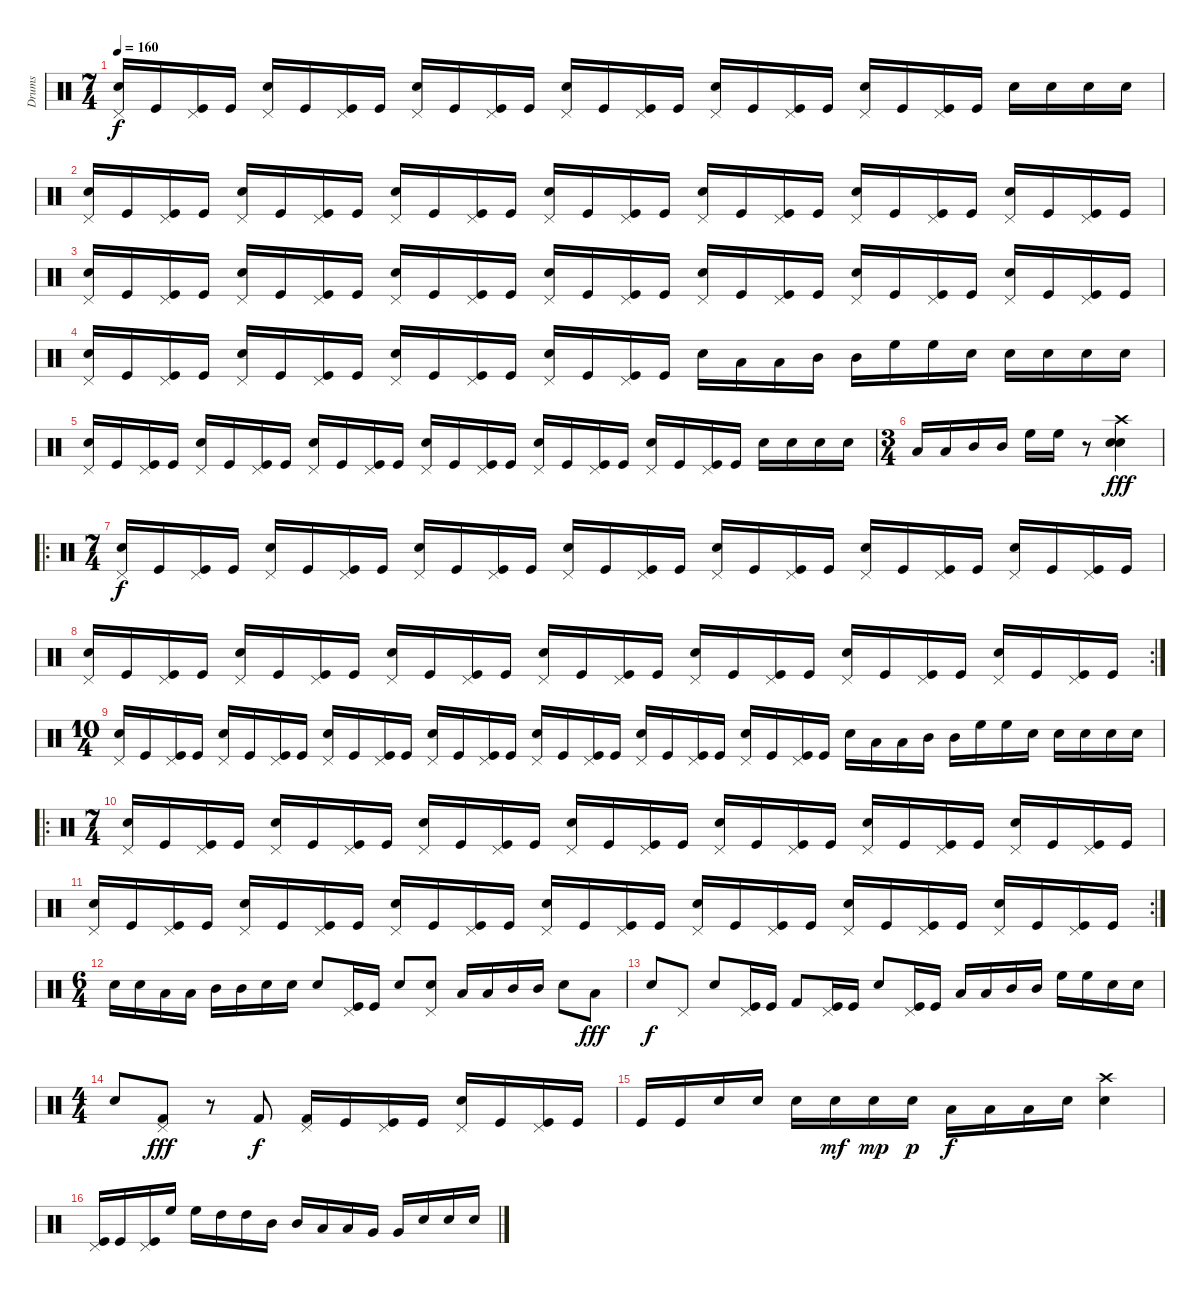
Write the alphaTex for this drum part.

\track ("Drums" "Drums") {instrument percussion}
\staff {score}
\articulation defaults
\ts (7 4)
\tempo 160
\clef neutral
\ks c
("Pedal Hi-Hat (hit)" "Electric Snare (hit)").16{dy f} "Kick (hit)".16 ("Pedal Hi-Hat (hit)" "Kick (hit)").16 "Kick (hit)".16 ("Pedal Hi-Hat (hit)" "Electric Snare (hit)").16 "Kick (hit)".16 ("Pedal Hi-Hat (hit)" "Kick (hit)").16 "Kick (hit)".16 ("Pedal Hi-Hat (hit)" "Electric Snare (hit)").16 "Kick (hit)".16 ("Pedal Hi-Hat (hit)" "Kick (hit)").16 "Kick (hit)".16 ("Pedal Hi-Hat (hit)" "Electric Snare (hit)").16 "Kick (hit)".16 ("Pedal Hi-Hat (hit)" "Kick (hit)").16 "Kick (hit)".16 ("Pedal Hi-Hat (hit)" "Electric Snare (hit)").16 "Kick (hit)".16 ("Pedal Hi-Hat (hit)" "Kick (hit)").16 "Kick (hit)".16 ("Pedal Hi-Hat (hit)" "Electric Snare (hit)").16 "Kick (hit)".16 ("Pedal Hi-Hat (hit)" "Kick (hit)").16 "Kick (hit)".16 "Electric Snare (hit)".16 "Electric Snare (hit)".16 "Electric Snare (hit)".16 "Electric Snare (hit)".16 |
("Pedal Hi-Hat (hit)" "Electric Snare (hit)").16 "Kick (hit)".16 ("Pedal Hi-Hat (hit)" "Kick (hit)").16 "Kick (hit)".16 ("Pedal Hi-Hat (hit)" "Electric Snare (hit)").16 "Kick (hit)".16 ("Pedal Hi-Hat (hit)" "Kick (hit)").16 "Kick (hit)".16 ("Pedal Hi-Hat (hit)" "Electric Snare (hit)").16 "Kick (hit)".16 ("Pedal Hi-Hat (hit)" "Kick (hit)").16 "Kick (hit)".16 ("Pedal Hi-Hat (hit)" "Electric Snare (hit)").16 "Kick (hit)".16 ("Pedal Hi-Hat (hit)" "Kick (hit)").16 "Kick (hit)".16 ("Pedal Hi-Hat (hit)" "Electric Snare (hit)").16 "Kick (hit)".16 ("Pedal Hi-Hat (hit)" "Kick (hit)").16 "Kick (hit)".16 ("Pedal Hi-Hat (hit)" "Electric Snare (hit)").16 "Kick (hit)".16 ("Pedal Hi-Hat (hit)" "Kick (hit)").16 "Kick (hit)".16 ("Pedal Hi-Hat (hit)" "Electric Snare (hit)").16 "Kick (hit)".16 ("Pedal Hi-Hat (hit)" "Kick (hit)").16 "Kick (hit)".16 |
("Pedal Hi-Hat (hit)" "Electric Snare (hit)").16 "Kick (hit)".16 ("Pedal Hi-Hat (hit)" "Kick (hit)").16 "Kick (hit)".16 ("Pedal Hi-Hat (hit)" "Electric Snare (hit)").16 "Kick (hit)".16 ("Pedal Hi-Hat (hit)" "Kick (hit)").16 "Kick (hit)".16 ("Pedal Hi-Hat (hit)" "Electric Snare (hit)").16 "Kick (hit)".16 ("Pedal Hi-Hat (hit)" "Kick (hit)").16 "Kick (hit)".16 ("Pedal Hi-Hat (hit)" "Electric Snare (hit)").16 "Kick (hit)".16 ("Pedal Hi-Hat (hit)" "Kick (hit)").16 "Kick (hit)".16 ("Pedal Hi-Hat (hit)" "Electric Snare (hit)").16 "Kick (hit)".16 ("Pedal Hi-Hat (hit)" "Kick (hit)").16 "Kick (hit)".16 ("Pedal Hi-Hat (hit)" "Electric Snare (hit)").16 "Kick (hit)".16 ("Pedal Hi-Hat (hit)" "Kick (hit)").16 "Kick (hit)".16 ("Pedal Hi-Hat (hit)" "Electric Snare (hit)").16 "Kick (hit)".16 ("Pedal Hi-Hat (hit)" "Kick (hit)").16 "Kick (hit)".16 |
("Pedal Hi-Hat (hit)" "Electric Snare (hit)").16 "Kick (hit)".16 ("Pedal Hi-Hat (hit)" "Kick (hit)").16 "Kick (hit)".16 ("Pedal Hi-Hat (hit)" "Electric Snare (hit)").16 "Kick (hit)".16 ("Pedal Hi-Hat (hit)" "Kick (hit)").16 "Kick (hit)".16 ("Pedal Hi-Hat (hit)" "Electric Snare (hit)").16 "Kick (hit)".16 ("Pedal Hi-Hat (hit)" "Kick (hit)").16 "Kick (hit)".16 ("Pedal Hi-Hat (hit)" "Electric Snare (hit)").16 "Kick (hit)".16 ("Pedal Hi-Hat (hit)" "Kick (hit)").16 "Kick (hit)".16 "Electric Snare (hit)".16 "Low Tom (hit)".16 "Low Tom (hit)".16 "Mid Tom (hit)".16 "Mid Tom (hit)".16 "High Floor Tom (hit)".16 "High Floor Tom (hit)".16 "Electric Snare (hit)".16 "Electric Snare (hit)".16 "Electric Snare (hit)".16 "Electric Snare (hit)".16 "Electric Snare (hit)".16 |
("Pedal Hi-Hat (hit)" "Electric Snare (hit)").16 "Kick (hit)".16 ("Pedal Hi-Hat (hit)" "Kick (hit)").16 "Kick (hit)".16 ("Pedal Hi-Hat (hit)" "Electric Snare (hit)").16 "Kick (hit)".16 ("Pedal Hi-Hat (hit)" "Kick (hit)").16 "Kick (hit)".16 ("Pedal Hi-Hat (hit)" "Electric Snare (hit)").16 "Kick (hit)".16 ("Pedal Hi-Hat (hit)" "Kick (hit)").16 "Kick (hit)".16 ("Pedal Hi-Hat (hit)" "Electric Snare (hit)").16 "Kick (hit)".16 ("Pedal Hi-Hat (hit)" "Kick (hit)").16 "Kick (hit)".16 ("Pedal Hi-Hat (hit)" "Electric Snare (hit)").16 "Kick (hit)".16 ("Pedal Hi-Hat (hit)" "Kick (hit)").16 "Kick (hit)".16 ("Pedal Hi-Hat (hit)" "Electric Snare (hit)").16 "Kick (hit)".16 ("Pedal Hi-Hat (hit)" "Kick (hit)").16 "Kick (hit)".16 "Electric Snare (hit)".16 "Electric Snare (hit)".16 "Electric Snare (hit)".16 "Electric Snare (hit)".16 |
\ts (3 4)
"Low Tom (hit)".16 "Low Tom (hit)".16 "Mid Tom (hit)".16 "Mid Tom (hit)".16 "High Floor Tom (hit)".16 "High Floor Tom (hit)".16 r.8 ("Electric Snare (hit)" "Electric Snare (hit)" "Crash high (hit)").4{dy fff} |
\ro
\ts (7 4)
("Pedal Hi-Hat (hit)" "Electric Snare (hit)").16{dy f} "Kick (hit)".16 ("Pedal Hi-Hat (hit)" "Kick (hit)").16 "Kick (hit)".16 ("Pedal Hi-Hat (hit)" "Electric Snare (hit)").16 "Kick (hit)".16 ("Pedal Hi-Hat (hit)" "Kick (hit)").16 "Kick (hit)".16 ("Pedal Hi-Hat (hit)" "Electric Snare (hit)").16 "Kick (hit)".16 ("Pedal Hi-Hat (hit)" "Kick (hit)").16 "Kick (hit)".16 ("Pedal Hi-Hat (hit)" "Electric Snare (hit)").16 "Kick (hit)".16 ("Pedal Hi-Hat (hit)" "Kick (hit)").16 "Kick (hit)".16 ("Pedal Hi-Hat (hit)" "Electric Snare (hit)").16 "Kick (hit)".16 ("Pedal Hi-Hat (hit)" "Kick (hit)").16 "Kick (hit)".16 ("Pedal Hi-Hat (hit)" "Electric Snare (hit)").16 "Kick (hit)".16 ("Pedal Hi-Hat (hit)" "Kick (hit)").16 "Kick (hit)".16 ("Pedal Hi-Hat (hit)" "Electric Snare (hit)").16 "Kick (hit)".16 ("Pedal Hi-Hat (hit)" "Kick (hit)").16 "Kick (hit)".16 |
\rc 2
("Pedal Hi-Hat (hit)" "Electric Snare (hit)").16 "Kick (hit)".16 ("Pedal Hi-Hat (hit)" "Kick (hit)").16 "Kick (hit)".16 ("Pedal Hi-Hat (hit)" "Electric Snare (hit)").16 "Kick (hit)".16 ("Pedal Hi-Hat (hit)" "Kick (hit)").16 "Kick (hit)".16 ("Pedal Hi-Hat (hit)" "Electric Snare (hit)").16 "Kick (hit)".16 ("Pedal Hi-Hat (hit)" "Kick (hit)").16 "Kick (hit)".16 ("Pedal Hi-Hat (hit)" "Electric Snare (hit)").16 "Kick (hit)".16 ("Pedal Hi-Hat (hit)" "Kick (hit)").16 "Kick (hit)".16 ("Pedal Hi-Hat (hit)" "Electric Snare (hit)").16 "Kick (hit)".16 ("Pedal Hi-Hat (hit)" "Kick (hit)").16 "Kick (hit)".16 ("Pedal Hi-Hat (hit)" "Electric Snare (hit)").16 "Kick (hit)".16 ("Pedal Hi-Hat (hit)" "Kick (hit)").16 "Kick (hit)".16 ("Pedal Hi-Hat (hit)" "Electric Snare (hit)").16 "Kick (hit)".16 ("Pedal Hi-Hat (hit)" "Kick (hit)").16 "Kick (hit)".16 |
\ts (10 4)
("Pedal Hi-Hat (hit)" "Electric Snare (hit)").16 "Kick (hit)".16 ("Pedal Hi-Hat (hit)" "Kick (hit)").16 "Kick (hit)".16 ("Pedal Hi-Hat (hit)" "Electric Snare (hit)").16 "Kick (hit)".16 ("Pedal Hi-Hat (hit)" "Kick (hit)").16 "Kick (hit)".16 ("Pedal Hi-Hat (hit)" "Electric Snare (hit)").16 "Kick (hit)".16 ("Pedal Hi-Hat (hit)" "Kick (hit)").16 "Kick (hit)".16 ("Pedal Hi-Hat (hit)" "Electric Snare (hit)").16 "Kick (hit)".16 ("Pedal Hi-Hat (hit)" "Kick (hit)").16 "Kick (hit)".16 ("Pedal Hi-Hat (hit)" "Electric Snare (hit)").16 "Kick (hit)".16 ("Pedal Hi-Hat (hit)" "Kick (hit)").16 "Kick (hit)".16 ("Pedal Hi-Hat (hit)" "Electric Snare (hit)").16 "Kick (hit)".16 ("Pedal Hi-Hat (hit)" "Kick (hit)").16 "Kick (hit)".16 ("Pedal Hi-Hat (hit)" "Electric Snare (hit)").16 "Kick (hit)".16 ("Pedal Hi-Hat (hit)" "Kick (hit)").16 "Kick (hit)".16 "Electric Snare (hit)".16 "Low Tom (hit)".16 "Low Tom (hit)".16 "Mid Tom (hit)".16 "Mid Tom (hit)".16 "High Floor Tom (hit)".16 "High Floor Tom (hit)".16 "Electric Snare (hit)".16 "Electric Snare (hit)".16 "Electric Snare (hit)".16 "Electric Snare (hit)".16 "Electric Snare (hit)".16 |
\ro
\ts (7 4)
("Pedal Hi-Hat (hit)" "Electric Snare (hit)").16 "Kick (hit)".16 ("Pedal Hi-Hat (hit)" "Kick (hit)").16 "Kick (hit)".16 ("Pedal Hi-Hat (hit)" "Electric Snare (hit)").16 "Kick (hit)".16 ("Pedal Hi-Hat (hit)" "Kick (hit)").16 "Kick (hit)".16 ("Pedal Hi-Hat (hit)" "Electric Snare (hit)").16 "Kick (hit)".16 ("Pedal Hi-Hat (hit)" "Kick (hit)").16 "Kick (hit)".16 ("Pedal Hi-Hat (hit)" "Electric Snare (hit)").16 "Kick (hit)".16 ("Pedal Hi-Hat (hit)" "Kick (hit)").16 "Kick (hit)".16 ("Pedal Hi-Hat (hit)" "Electric Snare (hit)").16 "Kick (hit)".16 ("Pedal Hi-Hat (hit)" "Kick (hit)").16 "Kick (hit)".16 ("Pedal Hi-Hat (hit)" "Electric Snare (hit)").16 "Kick (hit)".16 ("Pedal Hi-Hat (hit)" "Kick (hit)").16 "Kick (hit)".16 ("Pedal Hi-Hat (hit)" "Electric Snare (hit)").16 "Kick (hit)".16 ("Pedal Hi-Hat (hit)" "Kick (hit)").16 "Kick (hit)".16 |
\rc 2
("Pedal Hi-Hat (hit)" "Electric Snare (hit)").16 "Kick (hit)".16 ("Pedal Hi-Hat (hit)" "Kick (hit)").16 "Kick (hit)".16 ("Pedal Hi-Hat (hit)" "Electric Snare (hit)").16 "Kick (hit)".16 ("Pedal Hi-Hat (hit)" "Kick (hit)").16 "Kick (hit)".16 ("Pedal Hi-Hat (hit)" "Electric Snare (hit)").16 "Kick (hit)".16 ("Pedal Hi-Hat (hit)" "Kick (hit)").16 "Kick (hit)".16 ("Pedal Hi-Hat (hit)" "Electric Snare (hit)").16 "Kick (hit)".16 ("Pedal Hi-Hat (hit)" "Kick (hit)").16 "Kick (hit)".16 ("Pedal Hi-Hat (hit)" "Electric Snare (hit)").16 "Kick (hit)".16 ("Pedal Hi-Hat (hit)" "Kick (hit)").16 "Kick (hit)".16 ("Pedal Hi-Hat (hit)" "Electric Snare (hit)").16 "Kick (hit)".16 ("Pedal Hi-Hat (hit)" "Kick (hit)").16 "Kick (hit)".16 ("Pedal Hi-Hat (hit)" "Electric Snare (hit)").16 "Kick (hit)".16 ("Pedal Hi-Hat (hit)" "Kick (hit)").16 "Kick (hit)".16 |
\ts (6 4)
"Electric Snare (hit)".16 "Electric Snare (hit)".16 "Low Tom (hit)".16 "Low Tom (hit)".16 "Mid Tom (hit)".16 "Mid Tom (hit)".16 "Electric Snare (hit)".16 "Electric Snare (hit)".16 "Electric Snare (hit)".8 ("Pedal Hi-Hat (hit)" "Kick (hit)").16 "Kick (hit)".16 "Electric Snare (hit)".8 ("Electric Snare (hit)" "Pedal Hi-Hat (hit)").8 "Low Tom (hit)".16 "Low Tom (hit)".16 "Mid Tom (hit)".16 "Mid Tom (hit)".16 "Electric Snare (hit)".8 "Low Tom (hit)".8{dy fff} |
"Electric Snare (hit)".8{dy f} "Pedal Hi-Hat (hit)".8 "Electric Snare (hit)".8 ("Pedal Hi-Hat (hit)" "Kick (hit)").16 "Kick (hit)".16 "Kick (hit) 2".8 ("Pedal Hi-Hat (hit)" "Kick (hit)").16 "Kick (hit)".16 "Electric Snare (hit)".8 ("Pedal Hi-Hat (hit)" "Kick (hit)").16 "Kick (hit)".16 "Low Tom (hit)".16 "Low Tom (hit)".16 "Mid Tom (hit)".16 "Mid Tom (hit)".16 "High Floor Tom (hit)".16 "High Floor Tom (hit)".16 "Electric Snare (hit)".16 "Electric Snare (hit)".16 |
\ts (4 4)
"Electric Snare (hit)".8 ("Pedal Hi-Hat (hit)" "Kick (hit) 2").8{dy fff} r.8 "Kick (hit) 2".8{dy f} ("Pedal Hi-Hat (hit)" "Kick (hit) 2").16 "Kick (hit)".16 ("Pedal Hi-Hat (hit)" "Kick (hit)").16 "Kick (hit)".16 ("Pedal Hi-Hat (hit)" "Electric Snare (hit)").16 "Kick (hit)".16 ("Pedal Hi-Hat (hit)" "Kick (hit)").16 "Kick (hit)".16 |
"Kick (hit)".16 "Kick (hit)".16 "Electric Snare (hit)".16 "Electric Snare (hit)".16 "Electric Snare (hit)".16 "Electric Snare (hit)".16{dy mf} "Electric Snare (hit)".16{dy mp} "Electric Snare (hit)".16{dy p} "Low Tom (hit)".16{dy f} "Low Tom (hit)".16 "Low Tom (hit)".16 "Electric Snare (hit)".16 ("Electric Snare (hit)" "Crash high (hit)").4 |
("Pedal Hi-Hat (hit)" "Kick (hit)").16 "Kick (hit)".16 ("Pedal Hi-Hat (hit)" "Kick (hit)").16 "High Floor Tom (hit)".16 "High Floor Tom (hit)".16 "High Tom (hit)".16 "High Tom (hit)".16 "Mid Tom (hit)".16 "Mid Tom (hit)".16 "Low Tom (hit)".16 "Low Tom (hit)".16 "Very Low Tom (hit)".16 "Very Low Tom (hit)".16 "Electric Snare (hit)".16 "Electric Snare (hit)".16 "Electric Snare (hit)".16
